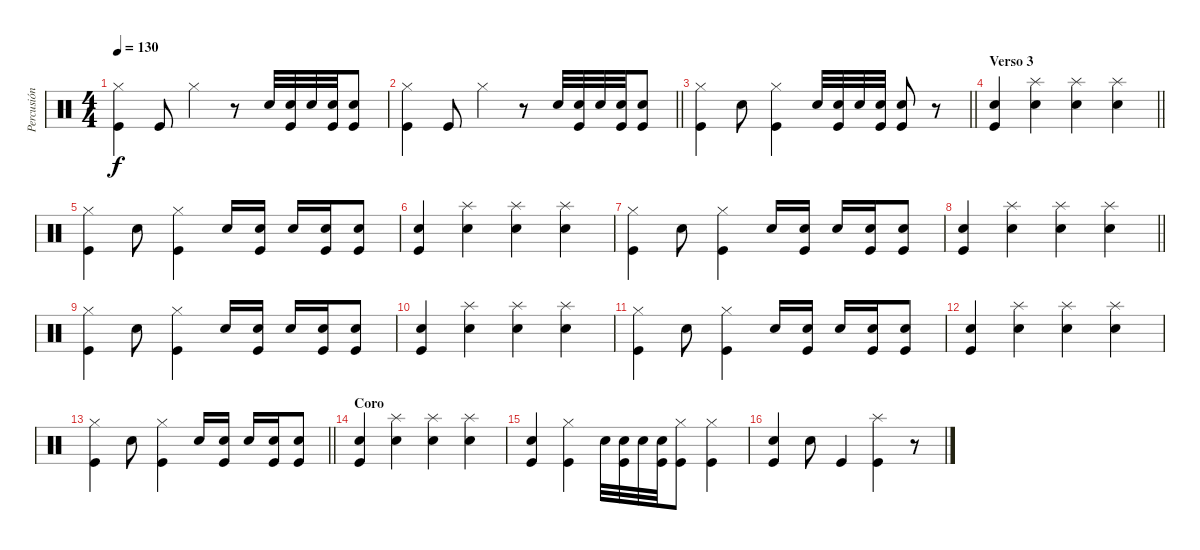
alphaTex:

\track ("Percusión" "Percusión") {instrument percussion}
\staff {score}
\articulation defaults
\ts (4 4)
\tempo 130
\clef neutral
\ks c
("Hi-Hat (closed)" "Kick (hit)").4{dy f} "Kick (hit)".8 "Hi-Hat (closed)".4 r.8 "Snare (hit) 2".32 ("Snare (hit) 2" "Kick (hit)").32 "Snare (hit) 2".32 ("Snare (hit) 2" "Kick (hit)").32 ("Snare (hit) 2" "Kick (hit)").8 |
\barLineRight lightlight
("Hi-Hat (closed)" "Kick (hit)").4 "Kick (hit)".8 "Hi-Hat (closed)".4 r.8 "Snare (hit) 2".32 ("Snare (hit) 2" "Kick (hit)").32 "Snare (hit) 2".32 ("Snare (hit) 2" "Kick (hit)").32 ("Snare (hit) 2" "Kick (hit)").8 |
\barLineRight lightlight
("Hi-Hat (closed)" "Kick (hit)").4 "Snare (hit) 2".8 ("Hi-Hat (closed)" "Kick (hit)").4 "Snare (hit) 2".32 ("Snare (hit) 2" "Kick (hit)").32 "Snare (hit) 2".32 ("Snare (hit) 2" "Kick (hit)").32 ("Snare (hit) 2" "Kick (hit)").8 r.8 |
\section ("" "Verso 3")
\barLineRight lightlight
("Snare (hit) 2" "Kick (hit)").4 ("Splash (hit)" "Snare (hit) 2").4 ("Splash (hit)" "Snare (hit) 2").4 ("Splash (hit)" "Snare (hit) 2").4 |
("Hi-Hat (closed)" "Kick (hit)").4 "Snare (hit) 2".8 ("Hi-Hat (closed)" "Kick (hit)").4 "Snare (hit) 2".16 ("Snare (hit) 2" "Kick (hit)").16 "Snare (hit) 2".16 ("Snare (hit) 2" "Kick (hit)").16 ("Snare (hit) 2" "Kick (hit)").8 |
("Snare (hit) 2" "Kick (hit)").4 ("Splash (hit)" "Snare (hit) 2").4 ("Splash (hit)" "Snare (hit) 2").4 ("Splash (hit)" "Snare (hit) 2").4 |
("Hi-Hat (closed)" "Kick (hit)").4 "Snare (hit) 2".8 ("Hi-Hat (closed)" "Kick (hit)").4 "Snare (hit) 2".16 ("Snare (hit) 2" "Kick (hit)").16 "Snare (hit) 2".16 ("Snare (hit) 2" "Kick (hit)").16 ("Snare (hit) 2" "Kick (hit)").8 |
\barLineRight lightlight
("Snare (hit) 2" "Kick (hit)").4 ("Splash (hit)" "Snare (hit) 2").4 ("Splash (hit)" "Snare (hit) 2").4 ("Splash (hit)" "Snare (hit) 2").4 |
("Hi-Hat (closed)" "Kick (hit)").4 "Snare (hit) 2".8 ("Hi-Hat (closed)" "Kick (hit)").4 "Snare (hit) 2".16 ("Snare (hit) 2" "Kick (hit)").16 "Snare (hit) 2".16 ("Snare (hit) 2" "Kick (hit)").16 ("Snare (hit) 2" "Kick (hit)").8 |
("Snare (hit) 2" "Kick (hit)").4 ("Splash (hit)" "Snare (hit) 2").4 ("Splash (hit)" "Snare (hit) 2").4 ("Splash (hit)" "Snare (hit) 2").4 |
("Hi-Hat (closed)" "Kick (hit)").4 "Snare (hit) 2".8 ("Hi-Hat (closed)" "Kick (hit)").4 "Snare (hit) 2".16 ("Snare (hit) 2" "Kick (hit)").16 "Snare (hit) 2".16 ("Snare (hit) 2" "Kick (hit)").16 ("Snare (hit) 2" "Kick (hit)").8 |
("Snare (hit) 2" "Kick (hit)").4 ("Splash (hit)" "Snare (hit) 2").4 ("Splash (hit)" "Snare (hit) 2").4 ("Splash (hit)" "Snare (hit) 2").4 |
\barLineRight lightlight
("Hi-Hat (closed)" "Kick (hit)").4 "Snare (hit) 2".8 ("Hi-Hat (closed)" "Kick (hit)").4 "Snare (hit) 2".16 ("Snare (hit) 2" "Kick (hit)").16 "Snare (hit) 2".16 ("Snare (hit) 2" "Kick (hit)").16 ("Snare (hit) 2" "Kick (hit)").8 |
\section ("" "Coro")
("Snare (hit) 2" "Kick (hit)").4 ("Splash (hit)" "Snare (hit) 2").4 ("Splash (hit)" "Snare (hit) 2").4 ("Splash (hit)" "Snare (hit) 2").4 |
("Snare (hit) 2" "Kick (hit)").4 ("Hi-Hat (closed)" "Kick (hit)").4 "Snare (hit) 2".32 ("Snare (hit) 2" "Kick (hit)").32 "Snare (hit) 2".32 ("Snare (hit) 2" "Kick (hit)").32 ("Hi-Hat (closed)" "Kick (hit)").8 ("Hi-Hat (closed)" "Kick (hit)").4 |
("Snare (hit) 2" "Kick (hit)").4 "Snare (hit) 2".8 "Kick (hit)".4 ("Splash (hit)" "Kick (hit)").4 r.8
